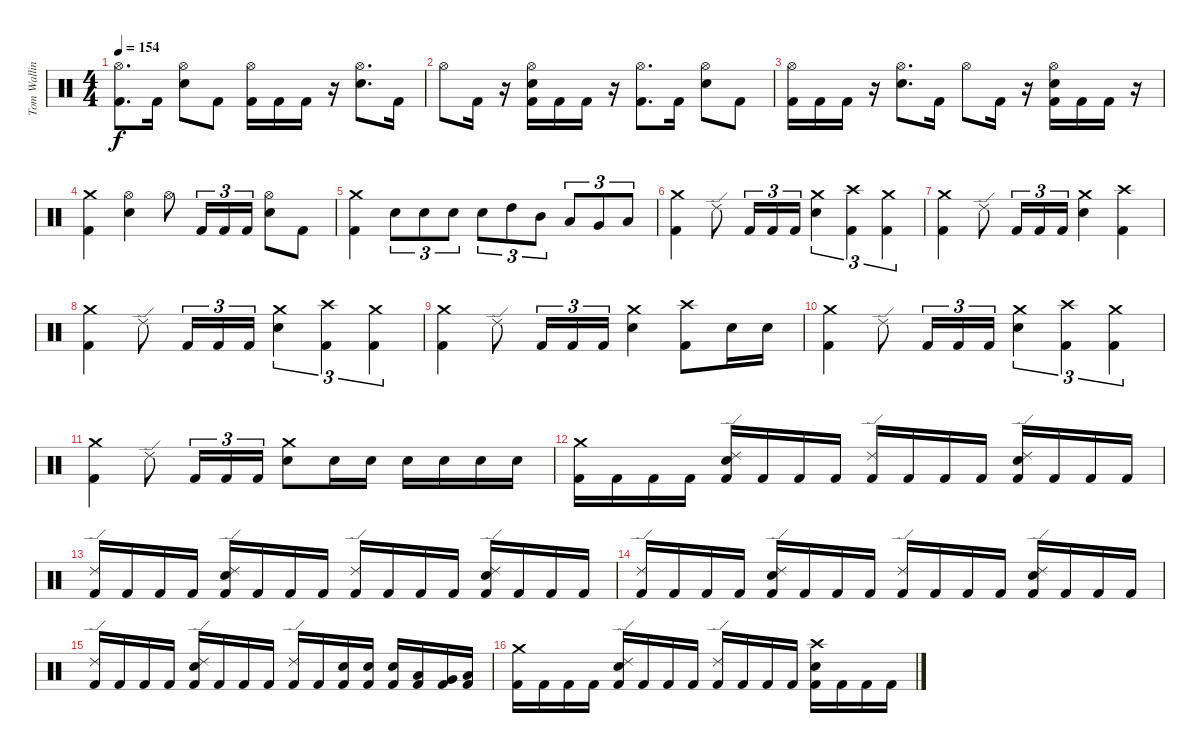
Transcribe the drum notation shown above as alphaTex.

\track ("Tom Walling" "Tom Wallin") {instrument percussion}
\staff {score}
\articulation defaults
\ts (4 4)
\tempo 154
\clef neutral
\ks c
("Hi-Hat (open)" "Kick (hit) 2").8{d dy f} "Kick (hit) 2".16 ("Hi-Hat (open)" "Electric Snare (hit)").8 "Kick (hit) 2".8 ("Kick (hit) 2" "Hi-Hat (open)").16 "Kick (hit) 2".16 "Kick (hit) 2".16 r.16 ("Electric Snare (hit)" "Hi-Hat (open)").8{d} "Kick (hit) 2".16 |
"Hi-Hat (open)".8 "Kick (hit) 2".16 r.16 ("Electric Snare (hit)" "Kick (hit) 2" "Hi-Hat (open)").16 "Kick (hit) 2".16 "Kick (hit) 2".16 r.16 ("Kick (hit) 2" "Hi-Hat (open)").8{d} "Kick (hit) 2".16 ("Electric Snare (hit)" "Hi-Hat (open)").8 "Kick (hit) 2".8 |
("Hi-Hat (open)" "Kick (hit) 2").16 "Kick (hit) 2".16 "Kick (hit) 2".16 r.16 ("Hi-Hat (open)" "Electric Snare (hit)").8{d} "Kick (hit) 2".16 "Hi-Hat (open)".8 "Kick (hit) 2".16 r.16 ("Hi-Hat (open)" "Kick (hit) 2" "Electric Snare (hit)").16 "Kick (hit) 2".16 "Kick (hit) 2".16 r.16 |
("Kick (hit) 2" "Crash medium (hit)").4 ("Electric Snare (hit)" "Hi-Hat (open)").4 "Hi-Hat (open)".8 "Kick (hit) 2".16{tu (3 2)} "Kick (hit) 2".16{tu (3 2)} "Kick (hit) 2".16{tu (3 2)} ("Electric Snare (hit)" "Hi-Hat (open)").8 "Kick (hit) 2".8 |
("Crash medium (hit)" "Kick (hit) 2").4 "Electric Snare (hit)".8{tu (3 2)} "Electric Snare (hit)".8{tu (3 2)} "Electric Snare (hit)".8{tu (3 2)} "Electric Snare (hit)".8{tu (3 2)} "High Tom (hit)".8{tu (3 2)} "Mid Tom (hit)".8{tu (3 2)} "Low Tom (hit)".8{tu (3 2)} "Very Low Tom (hit)".8{tu (3 2)} "Low Floor Tom (hit)".8{tu (3 2)} |
("Kick (hit) 2" "Crash medium (hit)").4 "Ride (edge) 2".8 "Kick (hit) 2".16{tu (3 2)} "Kick (hit) 2".16{tu (3 2)} "Kick (hit) 2".16{tu (3 2)} ("Electric Snare (hit)" "Crash medium (hit)").4{tu (3 2)} ("Crash high (hit)" "Kick (hit) 2").4{tu (3 2)} ("Crash medium (hit)" "Kick (hit) 2").4{tu (3 2)} |
("Crash medium (hit)" "Kick (hit) 2").4 "Ride (edge) 2".8 "Kick (hit) 2".16{tu (3 2)} "Kick (hit) 2".16{tu (3 2)} "Kick (hit) 2".16{tu (3 2)} ("Crash medium (hit)" "Electric Snare (hit)").4 ("Crash high (hit)" "Kick (hit) 2").4 |
("Kick (hit) 2" "Crash medium (hit)").4 "Ride (edge) 2".8 "Kick (hit) 2".16{tu (3 2)} "Kick (hit) 2".16{tu (3 2)} "Kick (hit) 2".16{tu (3 2)} ("Electric Snare (hit)" "Crash medium (hit)").4{tu (3 2)} ("Crash high (hit)" "Kick (hit) 2").4{tu (3 2)} ("Crash medium (hit)" "Kick (hit) 2").4{tu (3 2)} |
("Crash medium (hit)" "Kick (hit) 2").4 "Ride (edge) 2".8 "Kick (hit) 2".16{tu (3 2)} "Kick (hit) 2".16{tu (3 2)} "Kick (hit) 2".16{tu (3 2)} ("Crash medium (hit)" "Electric Snare (hit)").4 ("Crash high (hit)" "Kick (hit) 2").8 "Electric Snare (hit)".16 "Electric Snare (hit)".16 |
("Kick (hit) 2" "Crash medium (hit)").4 "Ride (edge) 2".8 "Kick (hit) 2".16{tu (3 2)} "Kick (hit) 2".16{tu (3 2)} "Kick (hit) 2".16{tu (3 2)} ("Electric Snare (hit)" "Crash medium (hit)").4{tu (3 2)} ("Crash high (hit)" "Kick (hit) 2").4{tu (3 2)} ("Crash medium (hit)" "Kick (hit) 2").4{tu (3 2)} |
("Crash medium (hit)" "Kick (hit) 2").4 "Ride (edge) 2".8 "Kick (hit) 2".16{tu (3 2)} "Kick (hit) 2".16{tu (3 2)} "Kick (hit) 2".16{tu (3 2)} ("Crash medium (hit)" "Electric Snare (hit)").8 "Electric Snare (hit)".16 "Electric Snare (hit)".16 "Electric Snare (hit)".16 "Electric Snare (hit)".16 "Electric Snare (hit)".16 "Electric Snare (hit)".16 |
("Crash medium (hit)" "Kick (hit) 2").16 "Kick (hit) 2".16 "Kick (hit) 2".16 "Kick (hit) 2".16 ("Ride (edge) 2" "Kick (hit) 2" "Electric Snare (hit)").16 "Kick (hit) 2".16 "Kick (hit) 2".16 "Kick (hit) 2".16 ("Ride (edge) 2" "Kick (hit) 2").16 "Kick (hit) 2".16 "Kick (hit) 2".16 "Kick (hit) 2".16 ("Ride (edge) 2" "Kick (hit) 2" "Electric Snare (hit)").16 "Kick (hit) 2".16 "Kick (hit) 2".16 "Kick (hit) 2".16 |
("Ride (edge) 2" "Kick (hit) 2").16 "Kick (hit) 2".16 "Kick (hit) 2".16 "Kick (hit) 2".16 ("Ride (edge) 2" "Kick (hit) 2" "Electric Snare (hit)").16 "Kick (hit) 2".16 "Kick (hit) 2".16 "Kick (hit) 2".16 ("Ride (edge) 2" "Kick (hit) 2").16 "Kick (hit) 2".16 "Kick (hit) 2".16 "Kick (hit) 2".16 ("Ride (edge) 2" "Kick (hit) 2" "Electric Snare (hit)").16 "Kick (hit) 2".16 "Kick (hit) 2".16 "Kick (hit) 2".16 |
("Ride (edge) 2" "Kick (hit) 2").16 "Kick (hit) 2".16 "Kick (hit) 2".16 "Kick (hit) 2".16 ("Ride (edge) 2" "Kick (hit) 2" "Electric Snare (hit)").16 "Kick (hit) 2".16 "Kick (hit) 2".16 "Kick (hit) 2".16 ("Ride (edge) 2" "Kick (hit) 2").16 "Kick (hit) 2".16 "Kick (hit) 2".16 "Kick (hit) 2".16 ("Ride (edge) 2" "Kick (hit) 2" "Electric Snare (hit)").16 "Kick (hit) 2".16 "Kick (hit) 2".16 "Kick (hit) 2".16 |
("Ride (edge) 2" "Kick (hit) 2").16 "Kick (hit) 2".16 "Kick (hit) 2".16 "Kick (hit) 2".16 ("Ride (edge) 2" "Kick (hit) 2" "Electric Snare (hit)").16 "Kick (hit) 2".16 "Kick (hit) 2".16 "Kick (hit) 2".16 ("Ride (edge) 2" "Kick (hit) 2").16 "Kick (hit) 2".16 ("Electric Snare (hit)" "Kick (hit) 2").16 ("Electric Snare (hit)" "Kick (hit) 2").16 ("Kick (hit) 2" "Electric Snare (hit)").16 ("Low Tom (hit)" "Kick (hit) 2").16 ("Very Low Tom (hit)" "Kick (hit) 2").16 ("Low Floor Tom (hit)" "Kick (hit) 2").16 |
("Crash medium (hit)" "Kick (hit) 2").16 "Kick (hit) 2".16 "Kick (hit) 2".16 "Kick (hit) 2".16 ("Ride (edge) 2" "Kick (hit) 2" "Electric Snare (hit)").16 "Kick (hit) 2".16 "Kick (hit) 2".16 "Kick (hit) 2".16 ("Ride (edge) 2" "Kick (hit) 2").16 "Kick (hit) 2".16 "Kick (hit) 2".16 "Kick (hit) 2".16 ("Crash high (hit)" "Kick (hit) 2" "Electric Snare (hit)").16 "Kick (hit) 2".16 "Kick (hit) 2".16 "Kick (hit) 2".16
